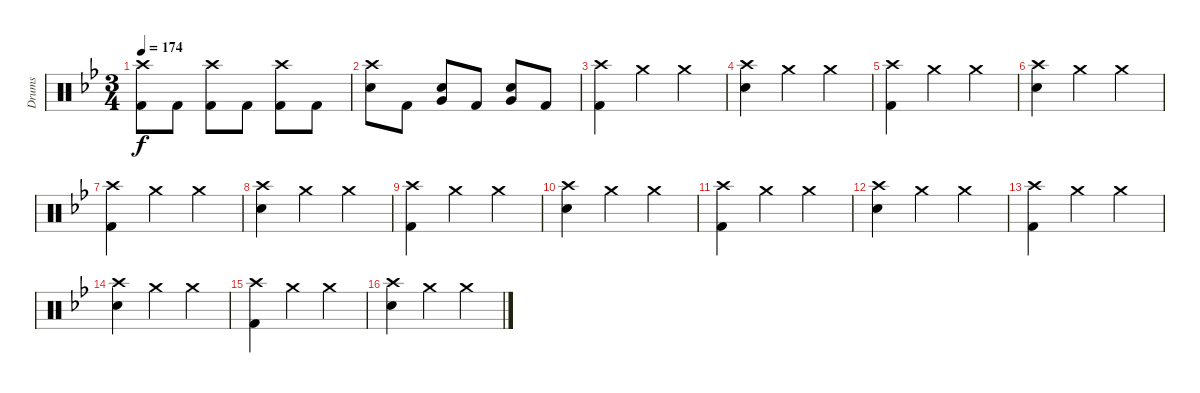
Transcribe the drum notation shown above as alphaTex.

\bracketExtendMode groupsimilarinstruments
\track ("Drumkit" "Drums") {instrument percussion}
\staff {score}
\articulation defaults
\ts (3 4)
\tempo 174
\clef neutral
\ks bb
("Crash high (hit)"{acc forcenatural} "Kick (hit) 2"{acc forcenatural}).8{dy f} "Kick (hit) 2"{acc forcenatural}.8 ("Crash high (hit)"{acc forcenatural} "Kick (hit) 2"{acc forcenatural}).8 "Kick (hit) 2"{acc forcenatural}.8 ("Crash high (hit)"{acc forcenatural} "Kick (hit) 2"{acc forcenatural}).8 "Kick (hit) 2"{acc forcenatural}.8 |
("Crash high (hit)"{acc forcenatural} "Snare (hit) 2"{acc forcenatural}).8 "Kick (hit) 2"{acc forcenatural}.8 ("Snare (hit) 2"{acc forcenatural} "Very Low Tom (hit)"{acc forcenatural}).8 "Kick (hit) 2"{acc forcenatural}.8 ("Snare (hit) 2"{acc forcenatural} "Very Low Tom (hit)"{acc forcenatural}).8 "Kick (hit) 2"{acc forcenatural}.8 |
("Crash high (hit)"{acc forcenatural} "Kick (hit) 2"{acc forcenatural}).4 "Crash medium (hit)"{acc forcenatural}.4 "Crash medium (hit)"{acc forcenatural}.4 |
("Crash high (hit)"{acc forcenatural} "Snare (hit) 2"{acc forcenatural}).4 "Crash medium (hit)"{acc forcenatural}.4 "Crash medium (hit)"{acc forcenatural}.4 |
("Crash high (hit)"{acc forcenatural} "Kick (hit) 2"{acc forcenatural}).4 "Crash medium (hit)"{acc forcenatural}.4 "Crash medium (hit)"{acc forcenatural}.4 |
("Crash high (hit)"{acc forcenatural} "Snare (hit) 2"{acc forcenatural}).4 "Crash medium (hit)"{acc forcenatural}.4 "Crash medium (hit)"{acc forcenatural}.4 |
("Crash high (hit)"{acc forcenatural} "Kick (hit) 2"{acc forcenatural}).4 "Crash medium (hit)"{acc forcenatural}.4 "Crash medium (hit)"{acc forcenatural}.4 |
("Crash high (hit)"{acc forcenatural} "Snare (hit) 2"{acc forcenatural}).4 "Crash medium (hit)"{acc forcenatural}.4 "Crash medium (hit)"{acc forcenatural}.4 |
("Crash high (hit)"{acc forcenatural} "Kick (hit) 2"{acc forcenatural}).4 "Crash medium (hit)"{acc forcenatural}.4 "Crash medium (hit)"{acc forcenatural}.4 |
("Crash high (hit)"{acc forcenatural} "Snare (hit) 2"{acc forcenatural}).4 "Crash medium (hit)"{acc forcenatural}.4 "Crash medium (hit)"{acc forcenatural}.4 |
("Crash high (hit)"{acc forcenatural} "Kick (hit) 2"{acc forcenatural}).4 "Crash medium (hit)"{acc forcenatural}.4 "Crash medium (hit)"{acc forcenatural}.4 |
("Crash high (hit)"{acc forcenatural} "Snare (hit) 2"{acc forcenatural}).4 "Crash medium (hit)"{acc forcenatural}.4 "Crash medium (hit)"{acc forcenatural}.4 |
("Crash high (hit)"{acc forcenatural} "Kick (hit) 2"{acc forcenatural}).4 "Crash medium (hit)"{acc forcenatural}.4 "Crash medium (hit)"{acc forcenatural}.4 |
("Crash high (hit)"{acc forcenatural} "Snare (hit) 2"{acc forcenatural}).4 "Crash medium (hit)"{acc forcenatural}.4 "Crash medium (hit)"{acc forcenatural}.4 |
("Crash high (hit)"{acc forcenatural} "Kick (hit) 2"{acc forcenatural}).4 "Crash medium (hit)"{acc forcenatural}.4 "Crash medium (hit)"{acc forcenatural}.4 |
("Crash high (hit)"{acc forcenatural} "Snare (hit) 2"{acc forcenatural}).4 "Crash medium (hit)"{acc forcenatural}.4 "Crash medium (hit)"{acc forcenatural}.4
